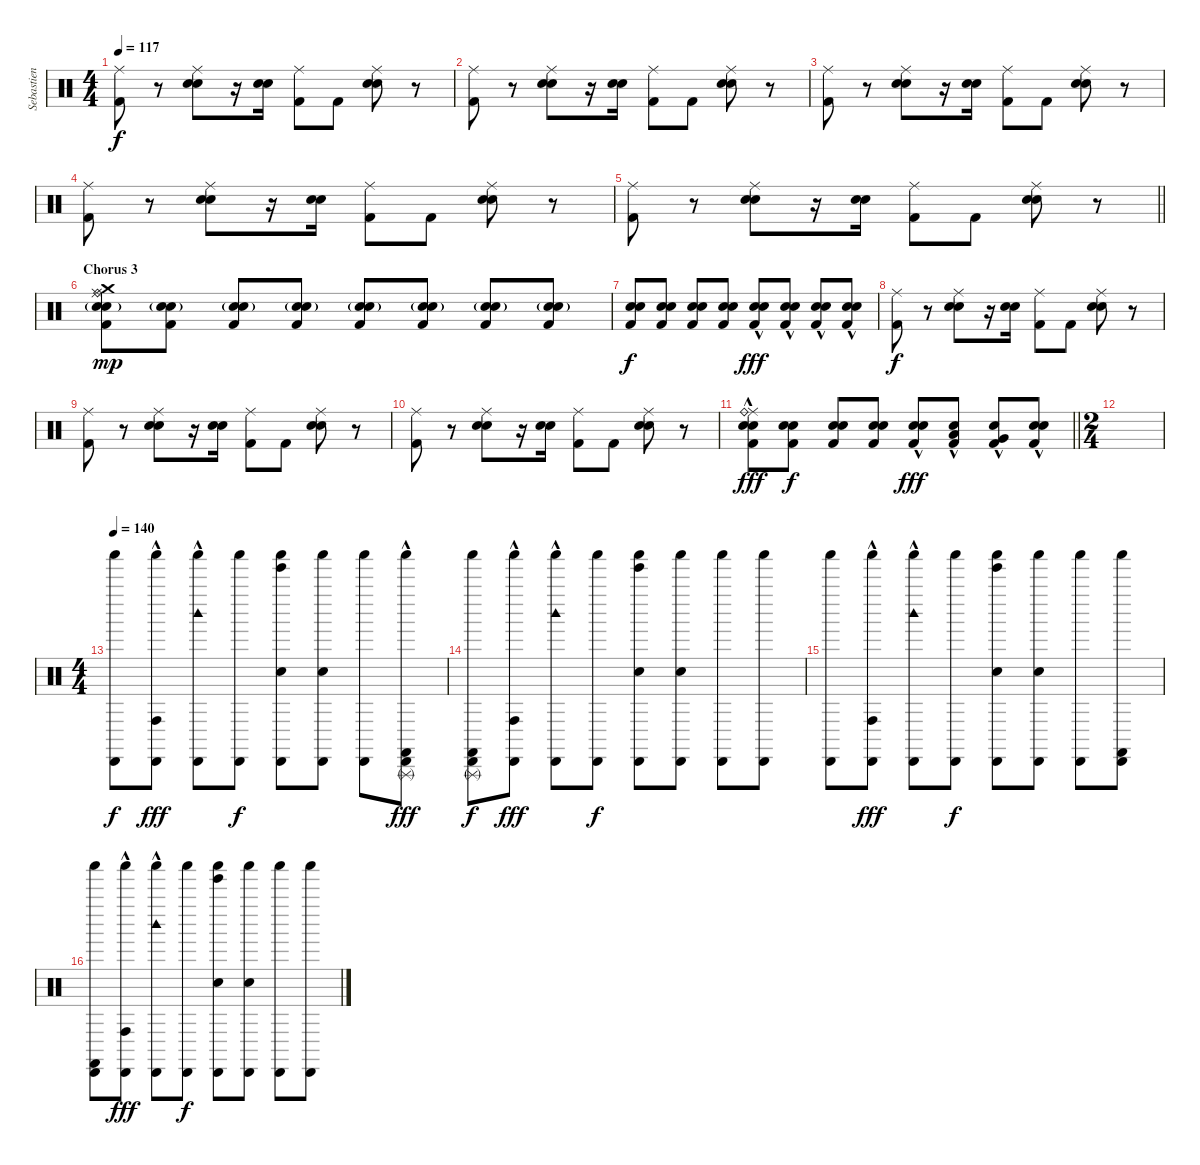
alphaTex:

\track ("Sebastien Grainger Drums" "Sebastien ") {instrument percussion}
\staff {score}
\articulation defaults
\ts (4 4)
\tempo 117
\clef neutral
\ks c
("Ride (middle)" "Kick (hit) 2").8{dy f} r.8 ("Ride (middle)" "Snare (hit) 2" "Electric Snare (hit)").8 r.16 ("Snare (hit) 2" "Electric Snare (hit)").16 ("Ride (middle)" "Kick (hit) 2").8 "Kick (hit) 2".8 ("Ride (middle)" "Snare (hit) 2" "Electric Snare (hit)").8 r.8 |
("Ride (middle)" "Kick (hit) 2").8 r.8 ("Ride (middle)" "Snare (hit) 2" "Electric Snare (hit)").8 r.16 ("Snare (hit) 2" "Electric Snare (hit)").16 ("Ride (middle)" "Kick (hit) 2").8 "Kick (hit) 2".8 ("Ride (middle)" "Snare (hit) 2" "Electric Snare (hit)").8 r.8 |
("Ride (middle)" "Kick (hit) 2").8 r.8 ("Ride (middle)" "Snare (hit) 2" "Electric Snare (hit)").8 r.16 ("Snare (hit) 2" "Electric Snare (hit)").16 ("Ride (middle)" "Kick (hit) 2").8 "Kick (hit) 2".8 ("Ride (middle)" "Snare (hit) 2" "Electric Snare (hit)").8 r.8 |
("Ride (middle)" "Kick (hit) 2").8 r.8 ("Ride (middle)" "Snare (hit) 2" "Electric Snare (hit)").8 r.16 ("Snare (hit) 2" "Electric Snare (hit)").16 ("Ride (middle)" "Kick (hit) 2").8 "Kick (hit) 2".8 ("Ride (middle)" "Snare (hit) 2" "Electric Snare (hit)").8 r.8 |
\barLineRight lightlight
("Ride (middle)" "Kick (hit) 2").8 r.8 ("Ride (middle)" "Snare (hit) 2" "Electric Snare (hit)").8 r.16 ("Snare (hit) 2" "Electric Snare (hit)").16 ("Ride (middle)" "Kick (hit) 2").8 "Kick (hit) 2".8 ("Ride (middle)" "Snare (hit) 2" "Electric Snare (hit)").8 r.8 |
\section ("" "Chorus 3")
("Kick (hit) 2" "Snare (hit) 2"{g} "Electric Snare (hit)"{g} "Crash medium (hit)" "Ride (middle)" "Ride (bell)").8{dy mp} ("Kick (hit) 2" "Snare (hit) 2"{g} "Electric Snare (hit)"{g}).8 ("Kick (hit) 2" "Snare (hit) 2"{g} "Electric Snare (hit)"{g}).8 ("Kick (hit) 2" "Snare (hit) 2"{g} "Electric Snare (hit)"{g}).8 ("Kick (hit) 2" "Snare (hit) 2"{g} "Electric Snare (hit)"{g}).8 ("Kick (hit) 2" "Snare (hit) 2"{g} "Electric Snare (hit)").8 ("Kick (hit) 2" "Snare (hit) 2"{g} "Electric Snare (hit)").8 ("Kick (hit) 2" "Snare (hit) 2"{g} "Electric Snare (hit)").8 |
("Kick (hit) 2" "Snare (hit) 2" "Electric Snare (hit)").8{dy f} ("Kick (hit) 2" "Snare (hit) 2" "Electric Snare (hit)").8 ("Kick (hit) 2" "Snare (hit) 2" "Electric Snare (hit)").8 ("Kick (hit) 2" "Snare (hit) 2" "Electric Snare (hit)").8 ("Kick (hit) 2" "Snare (hit) 2"{hac} "Electric Snare (hit)").8{dy fff} ("Kick (hit) 2" "Snare (hit) 2"{hac} "Electric Snare (hit)").8 ("Kick (hit) 2" "Snare (hit) 2"{hac} "Electric Snare (hit)"{hac}).8 ("Kick (hit) 2" "Snare (hit) 2"{hac} "Electric Snare (hit)"{hac}).8 |
("Ride (middle)" "Kick (hit) 2").8{dy f} r.8 ("Ride (middle)" "Snare (hit) 2" "Electric Snare (hit)").8 r.16 ("Snare (hit) 2" "Electric Snare (hit)").16 ("Ride (middle)" "Kick (hit) 2").8 "Kick (hit) 2".8 ("Ride (middle)" "Snare (hit) 2" "Electric Snare (hit)").8 r.8 |
("Ride (middle)" "Kick (hit) 2").8 r.8 ("Ride (middle)" "Snare (hit) 2" "Electric Snare (hit)").8 r.16 ("Snare (hit) 2" "Electric Snare (hit)").16 ("Ride (middle)" "Kick (hit) 2").8 "Kick (hit) 2".8 ("Ride (middle)" "Snare (hit) 2" "Electric Snare (hit)").8 r.8 |
("Ride (middle)" "Kick (hit) 2").8 r.8 ("Ride (middle)" "Snare (hit) 2" "Electric Snare (hit)").8 r.16 ("Snare (hit) 2" "Electric Snare (hit)").16 ("Ride (middle)" "Kick (hit) 2").8 "Kick (hit) 2".8 ("Ride (middle)" "Snare (hit) 2" "Electric Snare (hit)").8 r.8 |
\barLineRight lightlight
("Kick (hit) 2" "Snare (hit) 2" "Electric Snare (hit)" "Ride (middle)" "Ride (bell)"{hac}).8{dy fff} ("Kick (hit) 2" "Snare (hit) 2" "Electric Snare (hit)").8{dy f} ("Kick (hit) 2" "Snare (hit) 2" "Electric Snare (hit)").8 ("Kick (hit) 2" "Snare (hit) 2" "Electric Snare (hit)").8 ("Kick (hit) 2" "Snare (hit) 2"{hac} "Electric Snare (hit)").8{dy fff} ("Kick (hit) 2" "Low Tom (hit)"{hac} "Electric Snare (hit)").8 ("Kick (hit) 2" "Very Low Tom (hit)"{hac} "Electric Snare (hit)"{hac}).8 ("Kick (hit) 2" "Snare (hit) 2" "Electric Snare (hit)"{hac}).8 |
\ts (2 4)
|
\ts (4 4)
\tempo 140
("Shaker (hit)" "Cabasa (hit)").8{dy f volume 2} ("Shaker (hit)" "Cabasa (hit)" "Conga high (hit)"{hac}).8{dy fff volume 9} ("Shaker (hit)" "Cabasa (hit)" "Woodblock high (hit)"{hac}).8 ("Shaker (hit)" "Cabasa (hit)").8{dy f} ("Electric Snare (hit)" "Shaker (hit)" "Cabasa (hit)" "Tinkle Bell (hit)").8 ("Hand Clap (hit)" "Shaker (hit)" "Cabasa (hit)").8 ("Shaker (hit)" "Cabasa (hit)").8 ("Triangle (rnute)" "Shaker (hit)" "Cabasa (hit)" "Castanets (hit)"{hac}).8{dy fff} |
("Triangle (rnute)" "Shaker (hit)" "Cabasa (hit)" "Castanets (hit)").8{dy f} ("Shaker (hit)" "Cabasa (hit)" "Conga high (hit)"{hac}).8{dy fff} ("Shaker (hit)" "Cabasa (hit)" "Woodblock high (hit)"{hac}).8 ("Shaker (hit)" "Cabasa (hit)").8{dy f} ("Electric Snare (hit)" "Shaker (hit)" "Cabasa (hit)" "Tinkle Bell (hit)").8 ("Hand Clap (hit)" "Shaker (hit)" "Cabasa (hit)").8 ("Shaker (hit)" "Cabasa (hit)").8 ("Shaker (hit)" "Cabasa (hit)").8 |
("Shaker (hit)" "Cabasa (hit)").8 ("Shaker (hit)" "Cabasa (hit)" "Conga high (hit)"{hac}).8{dy fff} ("Shaker (hit)" "Cabasa (hit)" "Woodblock high (hit)"{hac}).8 ("Shaker (hit)" "Cabasa (hit)").8{dy f} ("Electric Snare (hit)" "Shaker (hit)" "Cabasa (hit)" "Tinkle Bell (hit)").8 ("Hand Clap (hit)" "Shaker (hit)" "Cabasa (hit)").8 ("Shaker (hit)" "Cabasa (hit)").8 ("Shaker (hit)" "Cabasa (hit)" "Castanets (hit)").8 |
("Shaker (hit)" "Cabasa (hit)" "Castanets (hit)").8 ("Shaker (hit)" "Cabasa (hit)" "Conga high (hit)"{hac}).8{dy fff} ("Shaker (hit)" "Cabasa (hit)" "Woodblock high (hit)"{hac}).8 ("Shaker (hit)" "Cabasa (hit)").8{dy f} ("Electric Snare (hit)" "Shaker (hit)" "Cabasa (hit)" "Tinkle Bell (hit)").8 ("Hand Clap (hit)" "Shaker (hit)" "Cabasa (hit)").8 ("Shaker (hit)" "Cabasa (hit)").8 ("Shaker (hit)" "Cabasa (hit)").8
